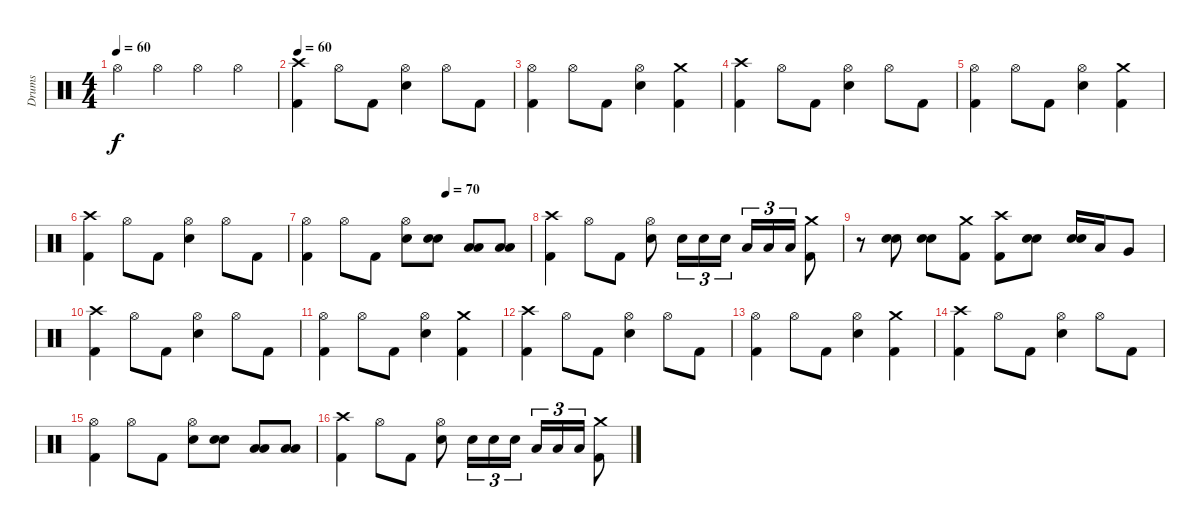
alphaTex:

\track ("Drums" "Drums") {instrument percussion}
\staff {score}
\articulation defaults
\ts (4 4)
\tempo 60
\tempo 40
\tempo 60
\clef neutral
\ks c "Hi-Hat (open)".4{dy f} "Hi-Hat (open)".4 "Hi-Hat (open)".4 "Hi-Hat (open)".4
|
\tempo 60
("Crash high (hit)" "Kick (hit) 2").4 "Hi-Hat (open)".8 "Kick (hit) 2".8 ("Hi-Hat (open)" "Electric Snare (hit)").4 "Hi-Hat (open)".8 "Kick (hit) 2".8 |
("Hi-Hat (open)" "Kick (hit) 2").4 "Hi-Hat (open)".8 "Kick (hit) 2".8 ("Hi-Hat (open)" "Electric Snare (hit)").4 ("Crash medium (hit)" "Kick (hit) 2").4 |
("Crash high (hit)" "Kick (hit) 2").4 "Hi-Hat (open)".8 "Kick (hit) 2".8 ("Hi-Hat (open)" "Electric Snare (hit)").4 "Hi-Hat (open)".8 "Kick (hit) 2".8 |
("Hi-Hat (open)" "Kick (hit) 2").4 "Hi-Hat (open)".8 "Kick (hit) 2".8 ("Hi-Hat (open)" "Electric Snare (hit)").4 ("Crash medium (hit)" "Kick (hit) 2").4 |
("Crash high (hit)" "Kick (hit) 2").4 "Hi-Hat (open)".8 "Kick (hit) 2".8 ("Hi-Hat (open)" "Electric Snare (hit)").4 "Hi-Hat (open)".8 "Kick (hit) 2".8 |
\tempo (70 0.625)
("Hi-Hat (open)" "Kick (hit) 2").4 "Hi-Hat (open)".8 "Kick (hit) 2".8 ("Hi-Hat (open)" "Electric Snare (hit)").8 ("Electric Snare (hit)" "Electric Snare (hit)").8{bu 60} ("Low Tom (hit)" "Low Tom (hit)").8{bu 60} ("Low Tom (hit)" "Low Tom (hit)").8{bu 60} |
("Crash high (hit)" "Kick (hit) 2").4 "Hi-Hat (open)".8 "Kick (hit) 2".8 ("Hi-Hat (open)" "Electric Snare (hit)").8 "Electric Snare (hit)".16{tu (3 2)} "Electric Snare (hit)".16{tu (3 2)} "Electric Snare (hit)".16{tu (3 2)} "Low Tom (hit)".16{tu (3 2)} "Low Tom (hit)".16{tu (3 2)} "Low Tom (hit)".16{tu (3 2)} ("Crash medium (hit)" "Kick (hit) 2").8 |
r.8 ("Electric Snare (hit)" "Electric Snare (hit)").8{bu 60} ("Electric Snare (hit)" "Electric Snare (hit)").8{bu 60} ("Crash medium (hit)" "Kick (hit) 2").8 ("Crash high (hit)" "Kick (hit) 2").8 ("Electric Snare (hit)" "Electric Snare (hit)").8{bu 60} ("Electric Snare (hit)" "Electric Snare (hit)").16{bu 60} "Low Tom (hit)".16 "Very Low Tom (hit)".8 |
("Crash high (hit)" "Kick (hit) 2").4 "Hi-Hat (open)".8 "Kick (hit) 2".8 ("Hi-Hat (open)" "Electric Snare (hit)").4 "Hi-Hat (open)".8 "Kick (hit) 2".8 |
("Hi-Hat (open)" "Kick (hit) 2").4 "Hi-Hat (open)".8 "Kick (hit) 2".8 ("Hi-Hat (open)" "Electric Snare (hit)").4 ("Crash medium (hit)" "Kick (hit) 2").4 |
("Crash high (hit)" "Kick (hit) 2").4 "Hi-Hat (open)".8 "Kick (hit) 2".8 ("Hi-Hat (open)" "Electric Snare (hit)").4 "Hi-Hat (open)".8 "Kick (hit) 2".8 |
("Hi-Hat (open)" "Kick (hit) 2").4 "Hi-Hat (open)".8 "Kick (hit) 2".8 ("Hi-Hat (open)" "Electric Snare (hit)").4 ("Crash medium (hit)" "Kick (hit) 2").4 |
("Crash high (hit)" "Kick (hit) 2").4 "Hi-Hat (open)".8 "Kick (hit) 2".8 ("Hi-Hat (open)" "Electric Snare (hit)").4 "Hi-Hat (open)".8 "Kick (hit) 2".8 |
("Hi-Hat (open)" "Kick (hit) 2").4 "Hi-Hat (open)".8 "Kick (hit) 2".8 ("Hi-Hat (open)" "Electric Snare (hit)").8 ("Electric Snare (hit)" "Electric Snare (hit)").8{bu 60} ("Low Tom (hit)" "Low Tom (hit)").8{bu 60} ("Low Tom (hit)" "Low Tom (hit)").8{bu 60} |
("Crash high (hit)" "Kick (hit) 2").4 "Hi-Hat (open)".8 "Kick (hit) 2".8 ("Hi-Hat (open)" "Electric Snare (hit)").8 "Electric Snare (hit)".16{tu (3 2)} "Electric Snare (hit)".16{tu (3 2)} "Electric Snare (hit)".16{tu (3 2)} "Low Tom (hit)".16{tu (3 2)} "Low Tom (hit)".16{tu (3 2)} "Low Tom (hit)".16{tu (3 2)} ("Crash medium (hit)" "Kick (hit) 2").8
